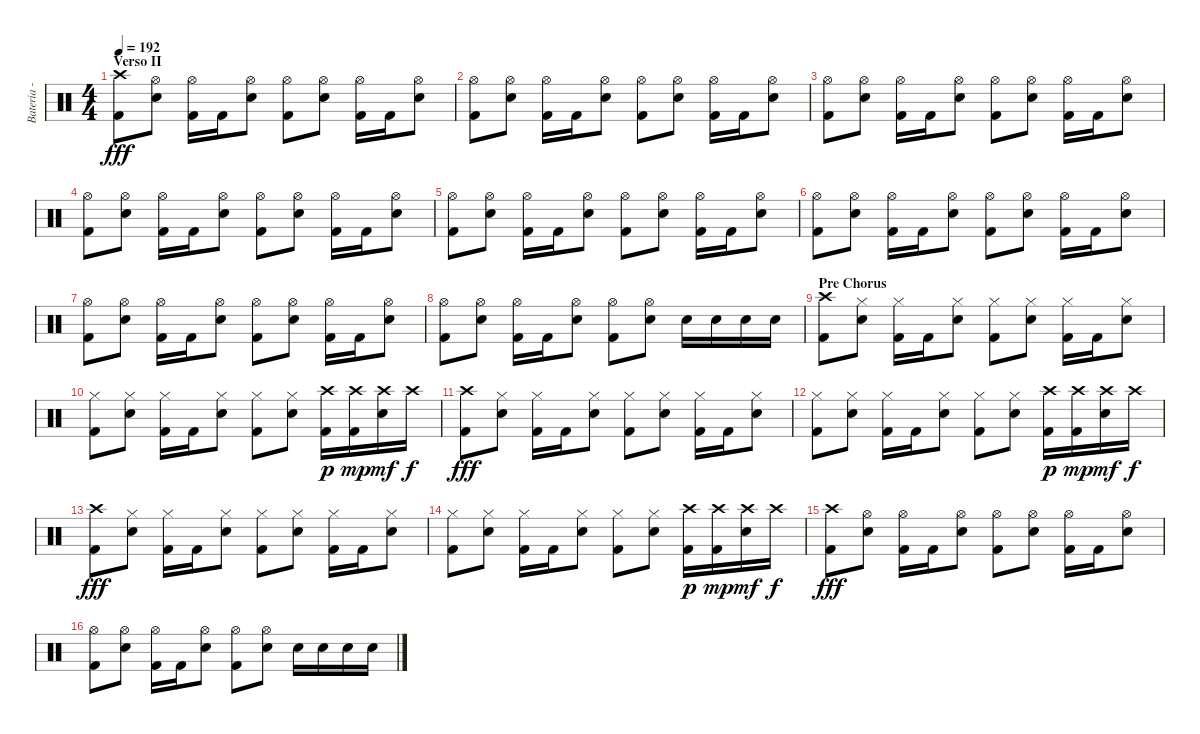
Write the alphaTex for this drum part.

\track ("Bateria - Larzon" "Bateria - ") {instrument percussion}
\staff {score}
\articulation defaults
\ts (4 4)
\section ("" "Verso II")
\tempo 192
\clef neutral
\ks c
("Kick (hit) 2" "Crash high (hit)").8{dy fff} ("Electric Snare (hit)" "Hi-Hat (open)").8 ("Kick (hit) 2" "Hi-Hat (open)").16 "Kick (hit) 2".16 ("Electric Snare (hit)" "Hi-Hat (open)").8 ("Kick (hit) 2" "Hi-Hat (open)").8 ("Electric Snare (hit)" "Hi-Hat (open)").8 ("Kick (hit) 2" "Hi-Hat (open)").16 "Kick (hit) 2".16 ("Electric Snare (hit)" "Hi-Hat (open)").8 |
("Kick (hit) 2" "Hi-Hat (open)").8 ("Electric Snare (hit)" "Hi-Hat (open)").8 ("Kick (hit) 2" "Hi-Hat (open)").16 "Kick (hit) 2".16 ("Electric Snare (hit)" "Hi-Hat (open)").8 ("Kick (hit) 2" "Hi-Hat (open)").8 ("Electric Snare (hit)" "Hi-Hat (open)").8 ("Kick (hit) 2" "Hi-Hat (open)").16 "Kick (hit) 2".16 ("Electric Snare (hit)" "Hi-Hat (open)").8 |
("Kick (hit) 2" "Hi-Hat (open)").8 ("Electric Snare (hit)" "Hi-Hat (open)").8 ("Kick (hit) 2" "Hi-Hat (open)").16 "Kick (hit) 2".16 ("Electric Snare (hit)" "Hi-Hat (open)").8 ("Kick (hit) 2" "Hi-Hat (open)").8 ("Electric Snare (hit)" "Hi-Hat (open)").8 ("Kick (hit) 2" "Hi-Hat (open)").16 "Kick (hit) 2".16 ("Electric Snare (hit)" "Hi-Hat (open)").8 |
("Kick (hit) 2" "Hi-Hat (open)").8 ("Electric Snare (hit)" "Hi-Hat (open)").8 ("Kick (hit) 2" "Hi-Hat (open)").16 "Kick (hit) 2".16 ("Electric Snare (hit)" "Hi-Hat (open)").8 ("Kick (hit) 2" "Hi-Hat (open)").8 ("Electric Snare (hit)" "Hi-Hat (open)").8 ("Kick (hit) 2" "Hi-Hat (open)").16 "Kick (hit) 2".16 ("Electric Snare (hit)" "Hi-Hat (open)").8 |
("Kick (hit) 2" "Hi-Hat (open)").8 ("Electric Snare (hit)" "Hi-Hat (open)").8 ("Kick (hit) 2" "Hi-Hat (open)").16 "Kick (hit) 2".16 ("Electric Snare (hit)" "Hi-Hat (open)").8 ("Kick (hit) 2" "Hi-Hat (open)").8 ("Electric Snare (hit)" "Hi-Hat (open)").8 ("Kick (hit) 2" "Hi-Hat (open)").16 "Kick (hit) 2".16 ("Electric Snare (hit)" "Hi-Hat (open)").8 |
("Kick (hit) 2" "Hi-Hat (open)").8 ("Electric Snare (hit)" "Hi-Hat (open)").8 ("Kick (hit) 2" "Hi-Hat (open)").16 "Kick (hit) 2".16 ("Electric Snare (hit)" "Hi-Hat (open)").8 ("Kick (hit) 2" "Hi-Hat (open)").8 ("Electric Snare (hit)" "Hi-Hat (open)").8 ("Kick (hit) 2" "Hi-Hat (open)").16 "Kick (hit) 2".16 ("Electric Snare (hit)" "Hi-Hat (open)").8 |
("Kick (hit) 2" "Hi-Hat (open)").8 ("Electric Snare (hit)" "Hi-Hat (open)").8 ("Kick (hit) 2" "Hi-Hat (open)").16 "Kick (hit) 2".16 ("Electric Snare (hit)" "Hi-Hat (open)").8 ("Kick (hit) 2" "Hi-Hat (open)").8 ("Electric Snare (hit)" "Hi-Hat (open)").8 ("Kick (hit) 2" "Hi-Hat (open)").16 "Kick (hit) 2".16 ("Electric Snare (hit)" "Hi-Hat (open)").8 |
("Kick (hit) 2" "Hi-Hat (open)").8 ("Electric Snare (hit)" "Hi-Hat (open)").8 ("Kick (hit) 2" "Hi-Hat (open)").16 "Kick (hit) 2".16 ("Electric Snare (hit)" "Hi-Hat (open)").8 ("Kick (hit) 2" "Hi-Hat (open)").8 ("Electric Snare (hit)" "Hi-Hat (open)").8 "Electric Snare (hit)".16 "Electric Snare (hit)".16 "Electric Snare (hit)".16 "Electric Snare (hit)".16 |
\section ("" "Pre Chorus")
("Kick (hit) 2" "Crash high (hit)").8 ("Electric Snare (hit)" "Hi-Hat (closed)").8 ("Kick (hit) 2" "Hi-Hat (closed)").16 "Kick (hit) 2".16 ("Electric Snare (hit)" "Hi-Hat (closed)").8 ("Kick (hit) 2" "Hi-Hat (closed)").8 ("Electric Snare (hit)" "Hi-Hat (closed)").8 ("Kick (hit) 2" "Hi-Hat (closed)").16 "Kick (hit) 2".16 ("Electric Snare (hit)" "Hi-Hat (closed)").8 |
("Kick (hit) 2" "Hi-Hat (closed)").8 ("Electric Snare (hit)" "Hi-Hat (closed)").8 ("Kick (hit) 2" "Hi-Hat (closed)").16 "Kick (hit) 2".16 ("Electric Snare (hit)" "Hi-Hat (closed)").8 ("Kick (hit) 2" "Hi-Hat (closed)").8 ("Electric Snare (hit)" "Hi-Hat (closed)").8 ("Kick (hit) 2" "Crash high (hit)").16{dy p} ("Kick (hit) 2" "Crash high (hit)").16{dy mp} ("Electric Snare (hit)" "Crash high (hit)").16{dy mf} "Crash high (hit)".16{dy f} |
("Kick (hit) 2" "Crash high (hit)").8{dy fff} ("Electric Snare (hit)" "Hi-Hat (closed)").8 ("Kick (hit) 2" "Hi-Hat (closed)").16 "Kick (hit) 2".16 ("Electric Snare (hit)" "Hi-Hat (closed)").8 ("Kick (hit) 2" "Hi-Hat (closed)").8 ("Electric Snare (hit)" "Hi-Hat (closed)").8 ("Kick (hit) 2" "Hi-Hat (closed)").16 "Kick (hit) 2".16 ("Electric Snare (hit)" "Hi-Hat (closed)").8 |
("Kick (hit) 2" "Hi-Hat (closed)").8 ("Electric Snare (hit)" "Hi-Hat (closed)").8 ("Kick (hit) 2" "Hi-Hat (closed)").16 "Kick (hit) 2".16 ("Electric Snare (hit)" "Hi-Hat (closed)").8 ("Kick (hit) 2" "Hi-Hat (closed)").8 ("Electric Snare (hit)" "Hi-Hat (closed)").8 ("Kick (hit) 2" "Crash high (hit)").16{dy p} ("Kick (hit) 2" "Crash high (hit)").16{dy mp} ("Electric Snare (hit)" "Crash high (hit)").16{dy mf} "Crash high (hit)".16{dy f} |
("Kick (hit) 2" "Crash high (hit)").8{dy fff} ("Electric Snare (hit)" "Hi-Hat (closed)").8 ("Kick (hit) 2" "Hi-Hat (closed)").16 "Kick (hit) 2".16 ("Electric Snare (hit)" "Hi-Hat (closed)").8 ("Kick (hit) 2" "Hi-Hat (closed)").8 ("Electric Snare (hit)" "Hi-Hat (closed)").8 ("Kick (hit) 2" "Hi-Hat (closed)").16 "Kick (hit) 2".16 ("Electric Snare (hit)" "Hi-Hat (closed)").8 |
("Kick (hit) 2" "Hi-Hat (closed)").8 ("Electric Snare (hit)" "Hi-Hat (closed)").8 ("Kick (hit) 2" "Hi-Hat (closed)").16 "Kick (hit) 2".16 ("Electric Snare (hit)" "Hi-Hat (closed)").8 ("Kick (hit) 2" "Hi-Hat (closed)").8 ("Electric Snare (hit)" "Hi-Hat (closed)").8 ("Kick (hit) 2" "Crash high (hit)").16{dy p} ("Kick (hit) 2" "Crash high (hit)").16{dy mp} ("Electric Snare (hit)" "Crash high (hit)").16{dy mf} "Crash high (hit)".16{dy f} |
("Kick (hit) 2" "Crash high (hit)").8{dy fff} ("Electric Snare (hit)" "Hi-Hat (open)").8 ("Kick (hit) 2" "Hi-Hat (open)").16 "Kick (hit) 2".16 ("Electric Snare (hit)" "Hi-Hat (open)").8 ("Kick (hit) 2" "Hi-Hat (open)").8 ("Electric Snare (hit)" "Hi-Hat (open)").8 ("Kick (hit) 2" "Hi-Hat (open)").16 "Kick (hit) 2".16 ("Electric Snare (hit)" "Hi-Hat (open)").8 |
("Kick (hit) 2" "Hi-Hat (open)").8 ("Electric Snare (hit)" "Hi-Hat (open)").8 ("Kick (hit) 2" "Hi-Hat (open)").16 "Kick (hit) 2".16 ("Electric Snare (hit)" "Hi-Hat (open)").8 ("Kick (hit) 2" "Hi-Hat (open)").8 ("Electric Snare (hit)" "Hi-Hat (open)").8 "Electric Snare (hit)".16 "Electric Snare (hit)".16 "Electric Snare (hit)".16 "Electric Snare (hit)".16
